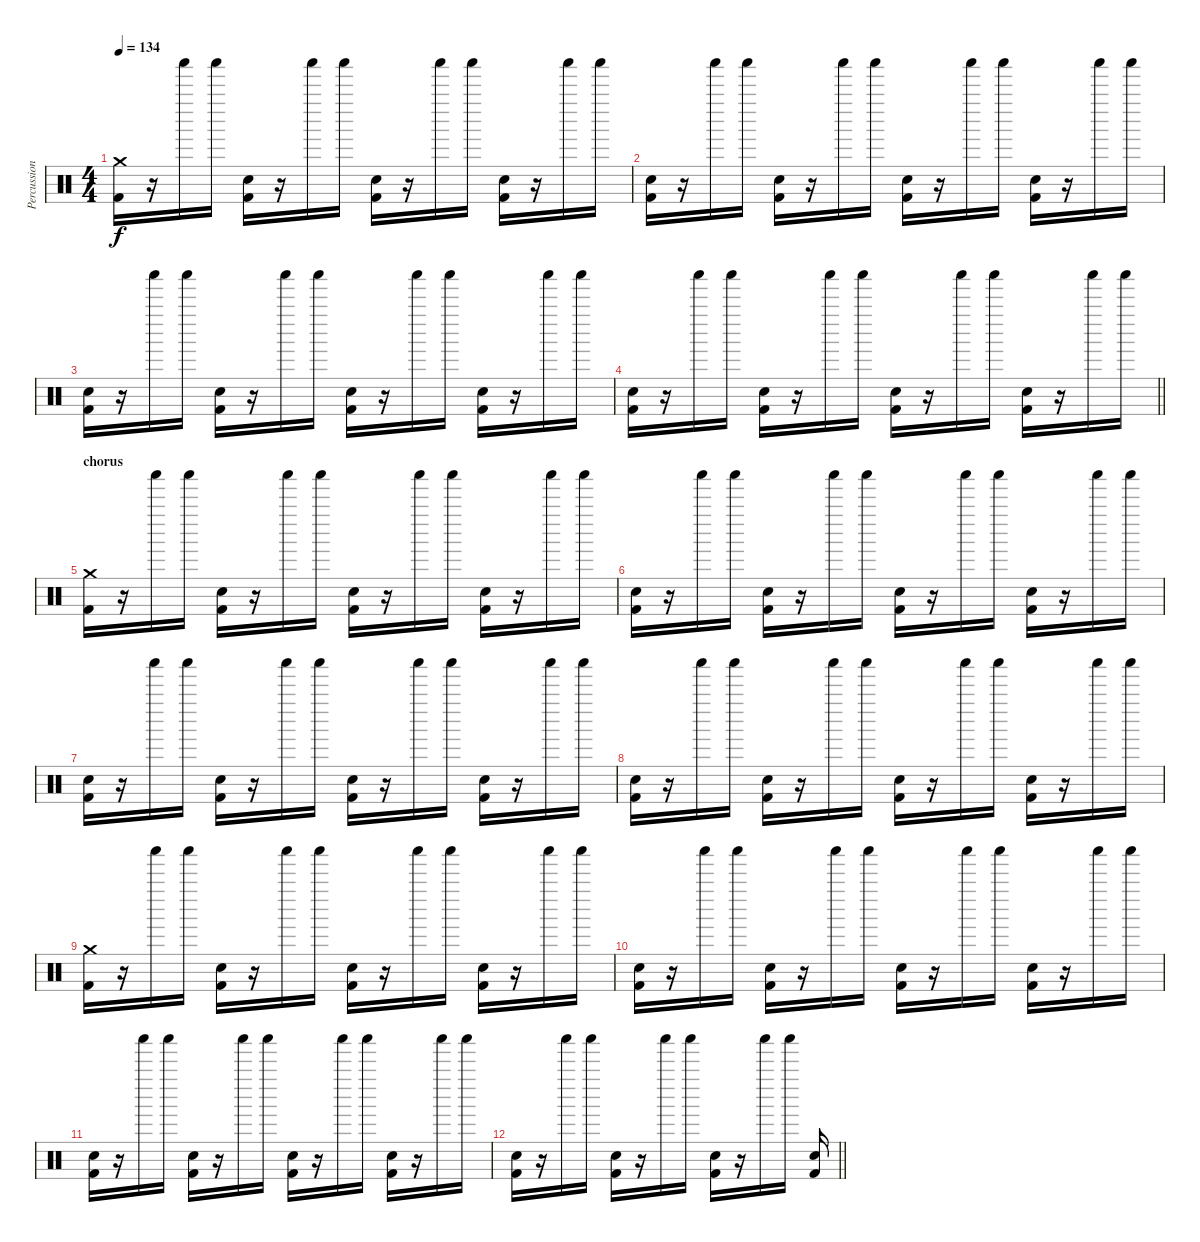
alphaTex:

\track ("Percussion" "Percussion") {instrument percussion}
\staff {score}
\articulation defaults
\ts (4 4)
\tempo 134
\clef neutral
\ks c
("Crash medium (hit)" "Kick (hit) 2").16{dy f} r.16 "Shaker (hit)".16 "Shaker (hit)".16 ("Hand Clap (hit)" "Kick (hit) 2").16 r.16 "Shaker (hit)".16 "Shaker (hit)".16 ("Hand Clap (hit)" "Kick (hit) 2").16 r.16 "Shaker (hit)".16 "Shaker (hit)".16 ("Hand Clap (hit)" "Kick (hit) 2").16 r.16 "Shaker (hit)".16 "Shaker (hit)".16 |
("Hand Clap (hit)" "Kick (hit) 2").16 r.16 "Shaker (hit)".16 "Shaker (hit)".16 ("Hand Clap (hit)" "Kick (hit) 2").16 r.16 "Shaker (hit)".16 "Shaker (hit)".16 ("Hand Clap (hit)" "Kick (hit) 2").16 r.16 "Shaker (hit)".16 "Shaker (hit)".16 ("Hand Clap (hit)" "Kick (hit) 2").16 r.16 "Shaker (hit)".16 "Shaker (hit)".16 |
("Hand Clap (hit)" "Kick (hit) 2").16 r.16 "Shaker (hit)".16 "Shaker (hit)".16 ("Hand Clap (hit)" "Kick (hit) 2").16 r.16 "Shaker (hit)".16 "Shaker (hit)".16 ("Hand Clap (hit)" "Kick (hit) 2").16 r.16 "Shaker (hit)".16 "Shaker (hit)".16 ("Hand Clap (hit)" "Kick (hit) 2").16 r.16 "Shaker (hit)".16 "Shaker (hit)".16 |
\barLineRight lightlight
("Hand Clap (hit)" "Kick (hit) 2").16 r.16 "Shaker (hit)".16 "Shaker (hit)".16 ("Hand Clap (hit)" "Kick (hit) 2").16 r.16 "Shaker (hit)".16 "Shaker (hit)".16 ("Hand Clap (hit)" "Kick (hit) 2").16 r.16 "Shaker (hit)".16 "Shaker (hit)".16 ("Hand Clap (hit)" "Kick (hit) 2").16 r.16 "Shaker (hit)".16 "Shaker (hit)".16 |
\section ("" "chorus")
("Crash medium (hit)" "Kick (hit) 2").16 r.16 "Shaker (hit)".16 "Shaker (hit)".16 ("Hand Clap (hit)" "Kick (hit) 2").16 r.16 "Shaker (hit)".16 "Shaker (hit)".16 ("Hand Clap (hit)" "Kick (hit) 2").16 r.16 "Shaker (hit)".16 "Shaker (hit)".16 ("Hand Clap (hit)" "Kick (hit) 2").16 r.16 "Shaker (hit)".16 "Shaker (hit)".16 |
("Hand Clap (hit)" "Kick (hit) 2").16 r.16 "Shaker (hit)".16 "Shaker (hit)".16 ("Hand Clap (hit)" "Kick (hit) 2").16 r.16 "Shaker (hit)".16 "Shaker (hit)".16 ("Hand Clap (hit)" "Kick (hit) 2").16 r.16 "Shaker (hit)".16 "Shaker (hit)".16 ("Hand Clap (hit)" "Kick (hit) 2").16 r.16 "Shaker (hit)".16 "Shaker (hit)".16 |
("Hand Clap (hit)" "Kick (hit) 2").16 r.16 "Shaker (hit)".16 "Shaker (hit)".16 ("Hand Clap (hit)" "Kick (hit) 2").16 r.16 "Shaker (hit)".16 "Shaker (hit)".16 ("Hand Clap (hit)" "Kick (hit) 2").16 r.16 "Shaker (hit)".16 "Shaker (hit)".16 ("Hand Clap (hit)" "Kick (hit) 2").16 r.16 "Shaker (hit)".16 "Shaker (hit)".16 |
("Hand Clap (hit)" "Kick (hit) 2").16 r.16 "Shaker (hit)".16 "Shaker (hit)".16 ("Hand Clap (hit)" "Kick (hit) 2").16 r.16 "Shaker (hit)".16 "Shaker (hit)".16 ("Hand Clap (hit)" "Kick (hit) 2").16 r.16 "Shaker (hit)".16 "Shaker (hit)".16 ("Hand Clap (hit)" "Kick (hit) 2").16 r.16 "Shaker (hit)".16 "Shaker (hit)".16 |
("Crash medium (hit)" "Kick (hit) 2").16 r.16 "Shaker (hit)".16 "Shaker (hit)".16 ("Hand Clap (hit)" "Kick (hit) 2").16 r.16 "Shaker (hit)".16 "Shaker (hit)".16 ("Hand Clap (hit)" "Kick (hit) 2").16 r.16 "Shaker (hit)".16 "Shaker (hit)".16 ("Hand Clap (hit)" "Kick (hit) 2").16 r.16 "Shaker (hit)".16 "Shaker (hit)".16 |
("Hand Clap (hit)" "Kick (hit) 2").16 r.16 "Shaker (hit)".16 "Shaker (hit)".16 ("Hand Clap (hit)" "Kick (hit) 2").16 r.16 "Shaker (hit)".16 "Shaker (hit)".16 ("Hand Clap (hit)" "Kick (hit) 2").16 r.16 "Shaker (hit)".16 "Shaker (hit)".16 ("Hand Clap (hit)" "Kick (hit) 2").16 r.16 "Shaker (hit)".16 "Shaker (hit)".16 |
("Hand Clap (hit)" "Kick (hit) 2").16 r.16 "Shaker (hit)".16 "Shaker (hit)".16 ("Hand Clap (hit)" "Kick (hit) 2").16 r.16 "Shaker (hit)".16 "Shaker (hit)".16 ("Hand Clap (hit)" "Kick (hit) 2").16 r.16 "Shaker (hit)".16 "Shaker (hit)".16 ("Hand Clap (hit)" "Kick (hit) 2").16 r.16 "Shaker (hit)".16 "Shaker (hit)".16 |
\barLineRight lightlight
("Hand Clap (hit)" "Kick (hit) 2").16 r.16 "Shaker (hit)".16 "Shaker (hit)".16 ("Hand Clap (hit)" "Kick (hit) 2").16 r.16 "Shaker (hit)".16 "Shaker (hit)".16 ("Hand Clap (hit)" "Kick (hit) 2").16 r.16 "Shaker (hit)".16 "Shaker (hit)".16 ("Hand Clap (hit)" "Kick (hit) 2").16
